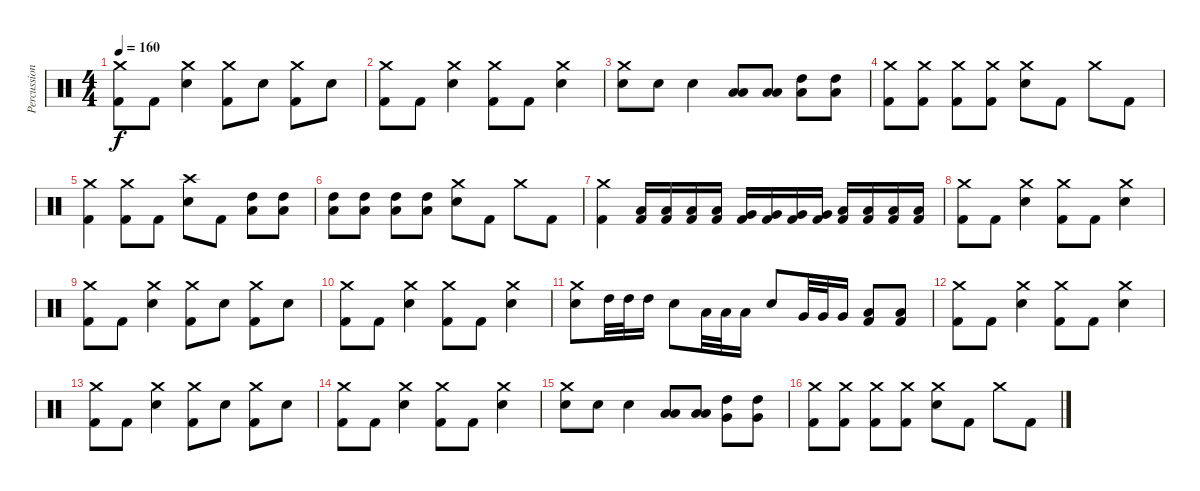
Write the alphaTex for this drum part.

\track ("Percussion" "Percussion") {instrument percussion}
\staff {score}
\articulation defaults
\ts (4 4)
\tempo 160
\clef neutral
\ks c
("Kick (hit) 2" "Crash medium (hit)").8{dy f} "Kick (hit) 2".8 ("Snare (hit) 2" "Crash medium (hit)").4 ("Kick (hit) 2" "Crash medium (hit)").8 "Snare (hit) 2".8 ("Kick (hit) 2" "Crash medium (hit)").8 "Snare (hit) 2".8 |
("Kick (hit) 2" "Crash medium (hit)").8 "Kick (hit) 2".8 ("Snare (hit) 2" "Crash medium (hit)").4 ("Kick (hit) 2" "Crash medium (hit)").8 "Kick (hit) 2".8 ("Snare (hit) 2" "Crash medium (hit)").4 |
("Snare (hit) 2" "Crash medium (hit)").8 "Snare (hit) 2".8 "Snare (hit) 2".4 ("Low Floor Tom (hit)" "Low Tom (hit)").8 ("Low Floor Tom (hit)" "Low Tom (hit)").8 ("Low Tom (hit)" "High Tom (hit)").8 ("Low Tom (hit)" "High Tom (hit)").8 |
("Kick (hit) 2" "Crash medium (hit)").8 ("Kick (hit) 2" "Crash medium (hit)").8 ("Kick (hit) 2" "Crash medium (hit)").8 ("Kick (hit) 2" "Crash medium (hit)").8 ("Snare (hit) 2" "Crash medium (hit)").8 "Kick (hit) 2".8 "Crash medium (hit)".8 "Kick (hit) 2".8 |
("Kick (hit) 2" "Crash medium (hit)").4 ("Kick (hit) 2" "Crash medium (hit)").8 "Kick (hit) 2".8 ("Snare (hit) 2" "Crash high (hit)").8 "Kick (hit) 2".8 ("Low Tom (hit)" "High Tom (hit)").8 ("Low Tom (hit)" "High Tom (hit)").8 |
("Low Tom (hit)" "High Tom (hit)").8 ("Low Tom (hit)" "High Tom (hit)").8 ("Low Tom (hit)" "High Tom (hit)").8 ("Low Tom (hit)" "High Tom (hit)").8 ("Snare (hit) 2" "Crash medium (hit)").8 "Kick (hit) 2".8 "Crash medium (hit)".8 "Kick (hit) 2".8 |
("Kick (hit) 2" "Crash medium (hit)").4 ("Low Tom (hit)" "Kick (hit) 2").16 ("Low Tom (hit)" "Kick (hit) 2").16 ("Low Tom (hit)" "Kick (hit) 2").16 ("Low Tom (hit)" "Kick (hit) 2").16 ("Very Low Tom (hit)" "Kick (hit) 2").16 ("Very Low Tom (hit)" "Kick (hit) 2").16 ("Very Low Tom (hit)" "Kick (hit) 2").16 ("Very Low Tom (hit)" "Kick (hit) 2").16 ("Low Floor Tom (hit)" "Kick (hit) 2").16 ("Low Floor Tom (hit)" "Kick (hit) 2").16 ("Low Floor Tom (hit)" "Kick (hit) 2").16 ("Low Floor Tom (hit)" "Kick (hit) 2").16 |
("Kick (hit) 2" "Crash medium (hit)").8 "Kick (hit) 2".8 ("Snare (hit) 2" "Crash medium (hit)").4 ("Kick (hit) 2" "Crash medium (hit)").8 "Kick (hit) 2".8 ("Snare (hit) 2" "Crash medium (hit)").4 |
("Kick (hit) 2" "Crash medium (hit)").8 "Kick (hit) 2".8 ("Snare (hit) 2" "Crash medium (hit)").4 ("Kick (hit) 2" "Crash medium (hit)").8 "Snare (hit) 2".8 ("Kick (hit) 2" "Crash medium (hit)").8 "Snare (hit) 2".8 |
("Kick (hit) 2" "Crash medium (hit)").8 "Kick (hit) 2".8 ("Snare (hit) 2" "Crash medium (hit)").4 ("Kick (hit) 2" "Crash medium (hit)").8 "Kick (hit) 2".8 ("Snare (hit) 2" "Crash medium (hit)").4 |
("Snare (hit) 2" "Crash medium (hit)").8 "High Tom (hit)".32 "High Tom (hit)".32 "High Tom (hit)".16 "Snare (hit) 2".8 "Low Tom (hit)".32 "Low Tom (hit)".32 "Low Tom (hit)".16 "Snare (hit) 2".8 "Very Low Tom (hit)".32 "Very Low Tom (hit)".32 "Very Low Tom (hit)".16 ("Kick (hit) 2" "Low Floor Tom (hit)").8 ("Kick (hit) 2" "Low Floor Tom (hit)").8 |
("Kick (hit) 2" "Crash medium (hit)").8 "Kick (hit) 2".8 ("Snare (hit) 2" "Crash medium (hit)").4 ("Kick (hit) 2" "Crash medium (hit)").8 "Kick (hit) 2".8 ("Snare (hit) 2" "Crash medium (hit)").4 |
("Kick (hit) 2" "Crash medium (hit)").8 "Kick (hit) 2".8 ("Snare (hit) 2" "Crash medium (hit)").4 ("Kick (hit) 2" "Crash medium (hit)").8 "Snare (hit) 2".8 ("Kick (hit) 2" "Crash medium (hit)").8 "Snare (hit) 2".8 |
("Kick (hit) 2" "Crash medium (hit)").8 "Kick (hit) 2".8 ("Snare (hit) 2" "Crash medium (hit)").4 ("Kick (hit) 2" "Crash medium (hit)").8 "Kick (hit) 2".8 ("Snare (hit) 2" "Crash medium (hit)").4 |
("Snare (hit) 2" "Crash medium (hit)").8 "Snare (hit) 2".8 "Snare (hit) 2".4 ("Low Floor Tom (hit)" "Low Tom (hit)").8 ("Low Floor Tom (hit)" "Low Tom (hit)").8 ("Very Low Tom (hit)" "High Tom (hit)").8 ("Very Low Tom (hit)" "High Tom (hit)").8 |
("Kick (hit) 2" "Crash medium (hit)").8 ("Kick (hit) 2" "Crash medium (hit)").8 ("Kick (hit) 2" "Crash medium (hit)").8 ("Kick (hit) 2" "Crash medium (hit)").8 ("Snare (hit) 2" "Crash medium (hit)").8 "Kick (hit) 2".8 "Crash medium (hit)".8 "Kick (hit) 2".8
